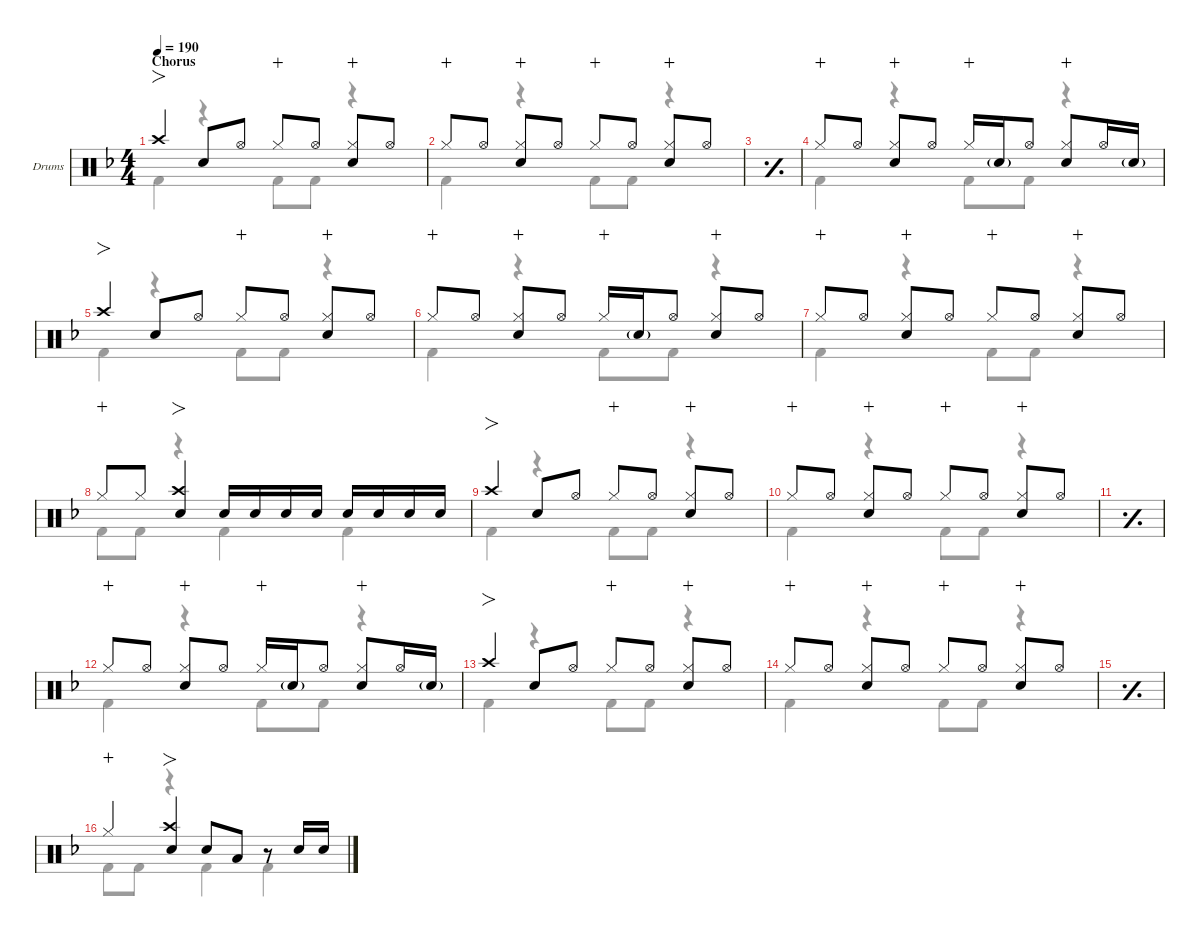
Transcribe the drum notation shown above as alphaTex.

\defaultSystemsLayout 4
\hideDynamics
\bracketExtendMode nobrackets
\firstSystemTrackNameOrientation horizontal
\track ("Drums" "Drums") {defaultSystemsLayout 4 instrument percussion}
\staff {score}
\articulation defaults
\voice
\ts (4 4)
\section ("" "Chorus")
\tempo 190
\clef neutral
\ks f "Crash high (hit)"{acc forcenatural}.4{fo dy f} "Snare (hit) 2"{acc forcenatural}.8 "Hi-Hat (open)"{acc forcenatural}.8 "Hi-Hat (closed)"{acc forcenatural}.8{wahc} "Hi-Hat (open)"{acc forcenatural}.8
("Hi-Hat (closed)"{acc forcenatural} "Snare (hit) 2"{acc forcenatural}).8{wahc} "Hi-Hat (open)"{acc forcenatural}.8 |
"Hi-Hat (closed)"{acc forcenatural}.8{wahc} "Hi-Hat (open)"{acc forcenatural}.8 ("Hi-Hat (closed)"{acc forcenatural} "Snare (hit) 2"{acc forcenatural}).8{wahc} "Hi-Hat (open)"{acc forcenatural}.8 "Hi-Hat (closed)"{acc forcenatural}.8{wahc} "Hi-Hat (open)"{acc forcenatural}.8 ("Hi-Hat (closed)"{acc forcenatural} "Snare (hit) 2"{acc forcenatural}).8{wahc} "Hi-Hat (open)"{acc forcenatural}.8 |
\simile simple
|
\simile none "Hi-Hat (closed)"{acc forcenatural}.8{wahc} "Hi-Hat (open)"{acc forcenatural}.8
("Hi-Hat (closed)"{acc forcenatural} "Snare (hit) 2"{acc forcenatural}).8{wahc} "Hi-Hat (open)"{acc forcenatural}.8 "Hi-Hat (closed)"{acc forcenatural}.16{wahc} "Snare (hit) 2"{g acc forcenatural}.16{dy mf} "Hi-Hat (open)"{acc forcenatural}.8{dy f beam split} ("Hi-Hat (closed)"{acc forcenatural} "Snare (hit) 2"{acc forcenatural}).8{wahc} "Hi-Hat (open)"{acc forcenatural}.16 "Snare (hit) 2"{g acc forcenatural}.16{dy mf} |
"Crash high (hit)"{acc forcenatural}.4{fo dy f} "Snare (hit) 2"{acc forcenatural}.8 "Hi-Hat (open)"{acc forcenatural}.8 "Hi-Hat (closed)"{acc forcenatural}.8{wahc} "Hi-Hat (open)"{acc forcenatural}.8 ("Hi-Hat (closed)"{acc forcenatural} "Snare (hit) 2"{acc forcenatural}).8{wahc} "Hi-Hat (open)"{acc forcenatural}.8 |
"Hi-Hat (closed)"{acc forcenatural}.8{wahc} "Hi-Hat (open)"{acc forcenatural}.8 ("Hi-Hat (closed)"{acc forcenatural} "Snare (hit) 2"{acc forcenatural}).8{wahc} "Hi-Hat (open)"{acc forcenatural}.8 "Hi-Hat (closed)"{acc forcenatural}.16{wahc} "Snare (hit) 2"{g acc forcenatural}.16{dy mf} "Hi-Hat (open)"{acc forcenatural}.8{dy f beam split} ("Hi-Hat (closed)"{acc forcenatural} "Snare (hit) 2"{acc forcenatural}).8{wahc} "Hi-Hat (open)"{acc forcenatural}.8 |
"Hi-Hat (closed)"{acc forcenatural}.8{wahc} "Hi-Hat (open)"{acc forcenatural}.8 ("Hi-Hat (closed)"{acc forcenatural} "Snare (hit) 2"{acc forcenatural}).8{wahc} "Hi-Hat (open)"{acc forcenatural}.8 "Hi-Hat (closed)"{acc forcenatural}.8{wahc} "Hi-Hat (open)"{acc forcenatural}.8 ("Hi-Hat (closed)"{acc forcenatural} "Snare (hit) 2"{acc forcenatural}).8{wahc} "Hi-Hat (open)"{acc forcenatural}.8 |
"Hi-Hat (closed)"{acc forcenatural}.8{dy mp wahc} "Hi-Hat (closed)"{acc forcenatural}.8{dy f} ("Snare (hit) 2"{acc forcenatural} "Crash high (hit)"{acc forcenatural}).4{fo} "Snare (hit) 2"{acc forcenatural}.16 "Snare (hit) 2"{acc forcenatural}.16{dy mf} "Snare (hit) 2"{acc forcenatural}.16{dy f} "Snare (hit) 2"{acc forcenatural}.16{dy mf beam split} "Snare (hit) 2"{acc forcenatural}.16{dy f} "Snare (hit) 2"{acc forcenatural}.16{dy mf} "Snare (hit) 2"{acc forcenatural}.16{dy f} "Snare (hit) 2"{acc forcenatural}.16{dy mf} |
"Crash high (hit)"{acc forcenatural}.4{fo dy f} "Snare (hit) 2"{acc forcenatural}.8 "Hi-Hat (open)"{acc forcenatural}.8 "Hi-Hat (closed)"{acc forcenatural}.8{wahc} "Hi-Hat (open)"{acc forcenatural}.8 ("Hi-Hat (closed)"{acc forcenatural} "Snare (hit) 2"{acc forcenatural}).8{wahc} "Hi-Hat (open)"{acc forcenatural}.8 |
"Hi-Hat (closed)"{acc forcenatural}.8{wahc} "Hi-Hat (open)"{acc forcenatural}.8 ("Hi-Hat (closed)"{acc forcenatural} "Snare (hit) 2"{acc forcenatural}).8{wahc} "Hi-Hat (open)"{acc forcenatural}.8 "Hi-Hat (closed)"{acc forcenatural}.8{wahc} "Hi-Hat (open)"{acc forcenatural}.8 ("Hi-Hat (closed)"{acc forcenatural} "Snare (hit) 2"{acc forcenatural}).8{wahc} "Hi-Hat (open)"{acc forcenatural}.8 |
\simile simple
|
\simile none "Hi-Hat (closed)"{acc forcenatural}.8{wahc} "Hi-Hat (open)"{acc forcenatural}.8
("Hi-Hat (closed)"{acc forcenatural} "Snare (hit) 2"{acc forcenatural}).8{wahc} "Hi-Hat (open)"{acc forcenatural}.8 "Hi-Hat (closed)"{acc forcenatural}.16{wahc} "Snare (hit) 2"{g acc forcenatural}.16{dy mf} "Hi-Hat (open)"{acc forcenatural}.8{dy f beam split} ("Hi-Hat (closed)"{acc forcenatural} "Snare (hit) 2"{acc forcenatural}).8{wahc} "Hi-Hat (open)"{acc forcenatural}.16 "Snare (hit) 2"{g acc forcenatural}.16{dy mf} |
"Crash high (hit)"{acc forcenatural}.4{fo dy f} "Snare (hit) 2"{acc forcenatural}.8 "Hi-Hat (open)"{acc forcenatural}.8 "Hi-Hat (closed)"{acc forcenatural}.8{wahc} "Hi-Hat (open)"{acc forcenatural}.8 ("Hi-Hat (closed)"{acc forcenatural} "Snare (hit) 2"{acc forcenatural}).8{wahc} "Hi-Hat (open)"{acc forcenatural}.8 |
"Hi-Hat (closed)"{acc forcenatural}.8{wahc} "Hi-Hat (open)"{acc forcenatural}.8 ("Hi-Hat (closed)"{acc forcenatural} "Snare (hit) 2"{acc forcenatural}).8{wahc} "Hi-Hat (open)"{acc forcenatural}.8 "Hi-Hat (closed)"{acc forcenatural}.8{wahc} "Hi-Hat (open)"{acc forcenatural}.8 ("Hi-Hat (closed)"{acc forcenatural} "Snare (hit) 2"{acc forcenatural}).8{wahc} "Hi-Hat (open)"{acc forcenatural}.8 |
\simile simple
|
\simile none "Hi-Hat (closed)"{acc forcenatural}.4{dy mp wahc}
("Snare (hit) 2"{acc forcenatural} "Crash high (hit)"{acc forcenatural}).4{fo dy f} "Snare (hit) 2"{acc forcenatural}.8{dy mf} "Low Tom (hit)"{acc forcenatural}.8{beam split} r.8{beam split} "Snare (hit) 2"{acc forcenatural}.16 "Snare (hit) 2"{acc forcenatural}.16
\voice
\clef neutral
\ottava regular
\simile none
\ks f "Kick (hit) 2"{acc forcenatural}.4{dy f}
r.4 "Kick (hit) 2"{acc forcenatural}.8 "Kick (hit) 2"{acc forcenatural}.8 r.4 |
"Kick (hit) 2"{acc forcenatural}.4 r.4 "Kick (hit) 2"{acc forcenatural}.8 "Kick (hit) 2"{acc forcenatural}.8 r.4 |
\simile simple
|
\simile none "Kick (hit) 2"{acc forcenatural}.4
r.4 "Kick (hit) 2"{acc forcenatural}.8 "Kick (hit) 2"{acc forcenatural}.8 r.4 |
"Kick (hit) 2"{acc forcenatural}.4 r.4 "Kick (hit) 2"{acc forcenatural}.8 "Kick (hit) 2"{acc forcenatural}.8 r.4 |
"Kick (hit) 2"{acc forcenatural}.4 r.4 "Kick (hit) 2"{acc forcenatural}.8 "Kick (hit) 2"{acc forcenatural}.8 r.4 |
"Kick (hit) 2"{acc forcenatural}.4 r.4 "Kick (hit) 2"{acc forcenatural}.8 "Kick (hit) 2"{acc forcenatural}.8 r.4 |
"Kick (hit) 2"{acc forcenatural}.8 "Kick (hit) 2"{acc forcenatural}.8 r.4 "Kick (hit) 2"{acc forcenatural}.4 "Kick (hit) 2"{acc forcenatural}.4 |
"Kick (hit) 2"{acc forcenatural}.4 r.4 "Kick (hit) 2"{acc forcenatural}.8 "Kick (hit) 2"{acc forcenatural}.8 r.4 |
"Kick (hit) 2"{acc forcenatural}.4 r.4 "Kick (hit) 2"{acc forcenatural}.8 "Kick (hit) 2"{acc forcenatural}.8 r.4 |
\simile simple
|
\simile none "Kick (hit) 2"{acc forcenatural}.4
r.4 "Kick (hit) 2"{acc forcenatural}.8 "Kick (hit) 2"{acc forcenatural}.8 r.4 |
"Kick (hit) 2"{acc forcenatural}.4 r.4 "Kick (hit) 2"{acc forcenatural}.8 "Kick (hit) 2"{acc forcenatural}.8 r.4 |
"Kick (hit) 2"{acc forcenatural}.4 r.4 "Kick (hit) 2"{acc forcenatural}.8 "Kick (hit) 2"{acc forcenatural}.8 r.4 |
\simile simple
|
\simile none "Kick (hit) 2"{acc forcenatural}.8 "Kick (hit) 2"{acc forcenatural}.8
r.4 "Kick (hit) 2"{acc forcenatural}.4 "Kick (hit) 2"{acc forcenatural}.4
